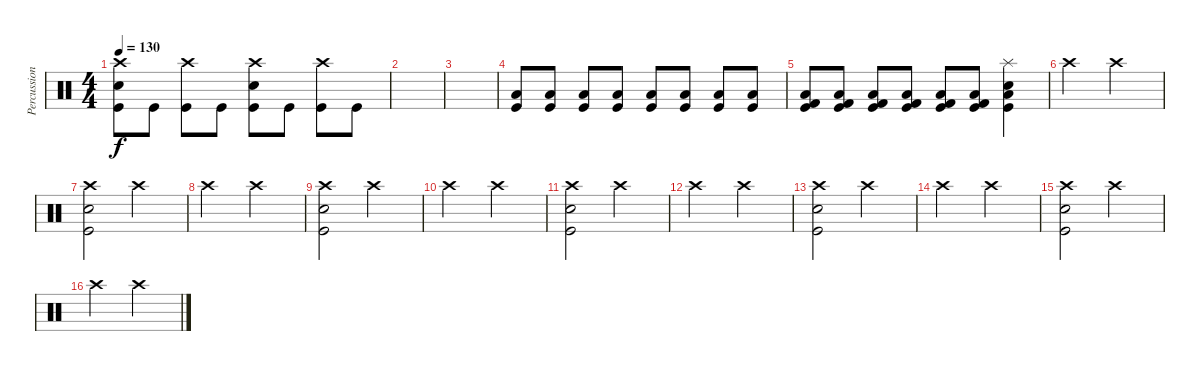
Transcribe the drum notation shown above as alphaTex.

\track ("Percussion" "Percussion") {instrument percussion}
\staff {score}
\articulation defaults
\ts (4 4)
\tempo 130
\clef neutral
\ks c
("Crash high (hit)" "Snare (hit) 2" "Kick (hit)").8{dy f} "Kick (hit)".8 ("Crash high (hit)" "Kick (hit)").8 "Kick (hit)".8 ("Crash high (hit)" "Snare (hit) 2" "Kick (hit)").8 "Kick (hit)".8 ("Crash high (hit)" "Kick (hit)").8 "Kick (hit)".8 |
|
|
("Low Tom (hit)" "Kick (hit)").8 ("Low Tom (hit)" "Kick (hit)").8 ("Low Tom (hit)" "Kick (hit)").8 ("Low Tom (hit)" "Kick (hit)").8 ("Low Tom (hit)" "Kick (hit)").8 ("Low Tom (hit)" "Kick (hit)").8 ("Low Tom (hit)" "Kick (hit)").8 ("Low Tom (hit)" "Kick (hit)").8 |
("Low Tom (hit)" "Kick (hit) 2" "Kick (hit)").8 ("Low Tom (hit)" "Kick (hit) 2" "Kick (hit)").8 ("Low Tom (hit)" "Kick (hit) 2" "Kick (hit)").8 ("Low Tom (hit)" "Kick (hit) 2" "Kick (hit)").8 ("Low Tom (hit)" "Kick (hit) 2" "Kick (hit)").8 ("Low Tom (hit)" "Kick (hit) 2" "Kick (hit)").8 ("Splash (hit)" "Low Tom (hit)" "Snare (hit) 2" "Kick (hit)").4 |
"Crash high (hit)".2 "Crash high (hit)".2 |
("Crash high (hit)" "Snare (hit) 2" "Kick (hit)").2 "Crash high (hit)".2 |
"Crash high (hit)".2 "Crash high (hit)".2 |
("Crash high (hit)" "Snare (hit) 2" "Kick (hit)").2 "Crash high (hit)".2 |
"Crash high (hit)".2 "Crash high (hit)".2 |
("Crash high (hit)" "Snare (hit) 2" "Kick (hit)").2 "Crash high (hit)".2 |
"Crash high (hit)".2 "Crash high (hit)".2 |
("Crash high (hit)" "Snare (hit) 2" "Kick (hit)").2 "Crash high (hit)".2 |
"Crash high (hit)".2 "Crash high (hit)".2 |
("Crash high (hit)" "Snare (hit) 2" "Kick (hit)").2 "Crash high (hit)".2 |
"Crash high (hit)".2 "Crash high (hit)".2
